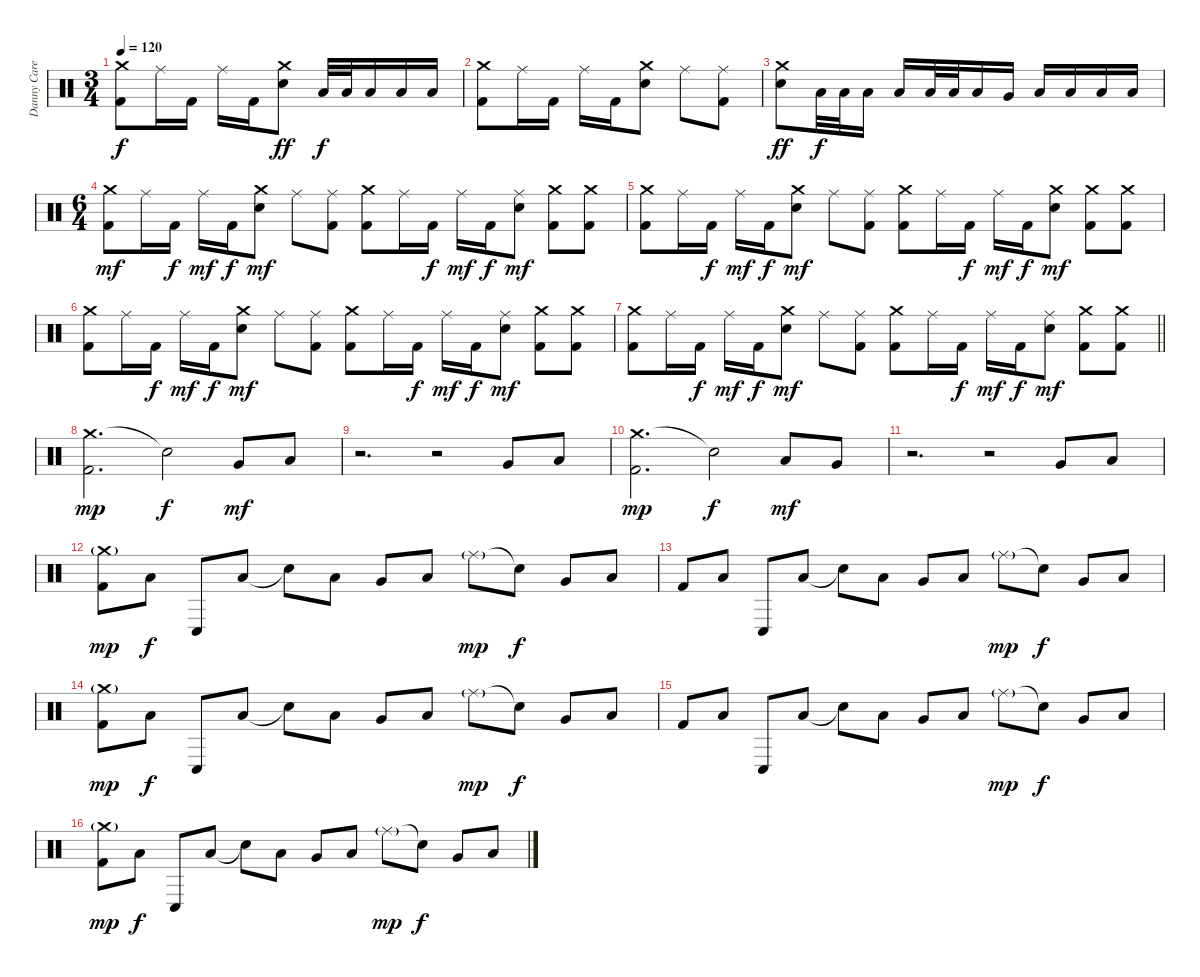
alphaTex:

\track ("Danny Carey" "Danny Care") {instrument percussion}
\staff {score}
\articulation defaults
\ts (3 4)
\tempo 120
\clef neutral
\ks c
("Crash medium (hit)" "Kick (hit) 2").8{dy f} "Ride (middle)".16 "Kick (hit) 2".16 "Ride (middle)".16 "Kick (hit) 2".16 ("Crash medium (hit)" "Snare (hit) 2").8{dy ff} "Low Tom (hit)".32{dy f} "Low Tom (hit)".32 "Low Tom (hit)".16 "Low Tom (hit)".16 "Low Tom (hit)".16 |
("Crash medium (hit)" "Kick (hit) 2").8 "Ride (middle)".16 "Kick (hit) 2".16 "Ride (middle)".16 "Kick (hit) 2".16 ("Crash medium (hit)" "Snare (hit) 2").8 "Ride (middle)".8 ("Ride (middle)" "Kick (hit) 2").8 |
("Crash medium (hit)" "Snare (hit) 2").8{dy ff} "Low Tom (hit)".32{dy f} "Low Tom (hit)".32 "Low Tom (hit)".16 "Low Tom (hit)".16 "Low Tom (hit)".32 "Low Tom (hit)".32 "Low Tom (hit)".16 "Very Low Tom (hit)".16 "Low Floor Tom (hit)".16 "Low Floor Tom (hit)".16 "Low Floor Tom (hit)".16 "Low Floor Tom (hit)".16 |
\ts (6 4)
("Crash medium (hit)" "Kick (hit) 2").8{dy mf} "Ride (middle)".16 "Kick (hit) 2".16{dy f} "Ride (middle)".16{dy mf} "Kick (hit) 2".16{dy f} ("Crash medium (hit)" "Snare (hit) 2").8{dy mf} "Ride (middle)".8 ("Ride (middle)" "Kick (hit) 2").8 ("Crash medium (hit)" "Kick (hit) 2").8 "Ride (middle)".16 "Kick (hit) 2".16{dy f} "Ride (middle)".16{dy mf} "Kick (hit) 2".16{dy f} ("Ride (middle)" "Snare (hit) 2").8{dy mf} ("Crash medium (hit)" "Kick (hit) 2").8 ("Crash medium (hit)" "Kick (hit) 2").8 |
("Crash medium (hit)" "Kick (hit) 2").8 "Ride (middle)".16 "Kick (hit) 2".16{dy f} "Ride (middle)".16{dy mf} "Kick (hit) 2".16{dy f} ("Crash medium (hit)" "Snare (hit) 2").8{dy mf} "Ride (middle)".8 ("Ride (middle)" "Kick (hit) 2").8 ("Crash medium (hit)" "Kick (hit) 2").8 "Ride (middle)".16 "Kick (hit) 2".16{dy f} "Ride (middle)".16{dy mf} "Kick (hit) 2".16{dy f} ("Crash medium (hit)" "Snare (hit) 2").8{dy mf} ("Crash medium (hit)" "Kick (hit) 2").8 ("Crash medium (hit)" "Kick (hit) 2").8 |
("Crash medium (hit)" "Kick (hit) 2").8 "Ride (middle)".16 "Kick (hit) 2".16{dy f} "Ride (middle)".16{dy mf} "Kick (hit) 2".16{dy f} ("Crash medium (hit)" "Snare (hit) 2").8{dy mf} "Ride (middle)".8 ("Ride (middle)" "Kick (hit) 2").8 ("Crash medium (hit)" "Kick (hit) 2").8 "Ride (middle)".16 "Kick (hit) 2".16{dy f} "Ride (middle)".16{dy mf} "Kick (hit) 2".16{dy f} ("Ride (middle)" "Snare (hit) 2").8{dy mf} ("Crash medium (hit)" "Kick (hit) 2").8 ("Crash medium (hit)" "Kick (hit) 2").8 |
\barLineRight lightlight
("Crash medium (hit)" "Kick (hit) 2").8 "Ride (middle)".16 "Kick (hit) 2".16{dy f} "Ride (middle)".16{dy mf} "Kick (hit) 2".16{dy f} ("Crash medium (hit)" "Snare (hit) 2").8{dy mf} "Ride (middle)".8 ("Ride (middle)" "Kick (hit) 2").8 ("Crash medium (hit)" "Kick (hit) 2").8 "Ride (middle)".16 "Kick (hit) 2".16{dy f} "Ride (middle)".16{dy mf} "Kick (hit) 2".16{dy f} ("Ride (middle)" "Snare (hit) 2").8{dy mf} ("Crash medium (hit)" "Kick (hit) 2").8 ("Crash medium (hit)" "Kick (hit) 2").8 |
\section ("" "")
("Crash medium (hit)" "Kick (hit) 2").2{d dy mp} "Snare (hit)"{t}.2{dy f} "Very Low Tom (hit)".8{dy mf} "Low Floor Tom (hit)".8 |
r.2{d} r.2 "Very Low Tom (hit)".8 "Low Tom (hit)".8 |
("Crash medium (hit)" "Kick (hit) 2").2{d dy mp} "Snare (hit)"{t}.2{dy f} "Low Tom (hit)".8{dy mf} "Very Low Tom (hit)".8 |
r.2{d} r.2 "Very Low Tom (hit)".8 "Low Tom (hit)".8 |
("Crash medium (hit)"{g} "Kick (hit) 2").8{dy mp} "Low Tom (hit)".8{dy f} "Conga low (hit)".8 "Low Tom (hit)".8 "Snare (hit)"{t}.8 "Low Tom (hit)".8 "Very Low Tom (hit)".8 "Low Tom (hit)".8 "Ride (middle)"{g}.8{dy mp} "Snare (hit)"{t}.8{dy f} "Very Low Tom (hit)".8 "Low Floor Tom (hit)".8 |
"Kick (hit) 2".8 "Low Tom (hit)".8 "Conga low (hit)".8 "Low Tom (hit)".8 "Snare (hit)"{t}.8 "Low Tom (hit)".8 "Very Low Tom (hit)".8 "Low Tom (hit)".8 "Ride (middle)"{g}.8{dy mp} "Snare (hit)"{t}.8{dy f} "Very Low Tom (hit)".8 "Low Floor Tom (hit)".8 |
("Crash medium (hit)"{g} "Kick (hit) 2").8{dy mp} "Low Tom (hit)".8{dy f} "Conga low (hit)".8 "Low Tom (hit)".8 "Snare (hit)"{t}.8 "Low Tom (hit)".8 "Very Low Tom (hit)".8 "Low Tom (hit)".8 "Ride (middle)"{g}.8{dy mp} "Snare (hit)"{t}.8{dy f} "Very Low Tom (hit)".8 "Low Floor Tom (hit)".8 |
"Kick (hit) 2".8 "Low Tom (hit)".8 "Conga low (hit)".8 "Low Tom (hit)".8 "Snare (hit)"{t}.8 "Low Tom (hit)".8 "Very Low Tom (hit)".8 "Low Tom (hit)".8 "Ride (middle)"{g}.8{dy mp} "Snare (hit)"{t}.8{dy f} "Very Low Tom (hit)".8 "Low Floor Tom (hit)".8 |
("Crash medium (hit)"{g} "Kick (hit) 2").8{dy mp} "Low Tom (hit)".8{dy f} "Conga low (hit)".8 "Low Tom (hit)".8 "Snare (hit)"{t}.8 "Low Tom (hit)".8 "Very Low Tom (hit)".8 "Low Tom (hit)".8 "Ride (middle)"{g}.8{dy mp} "Snare (hit)"{t}.8{dy f} "Very Low Tom (hit)".8 "Low Floor Tom (hit)".8
